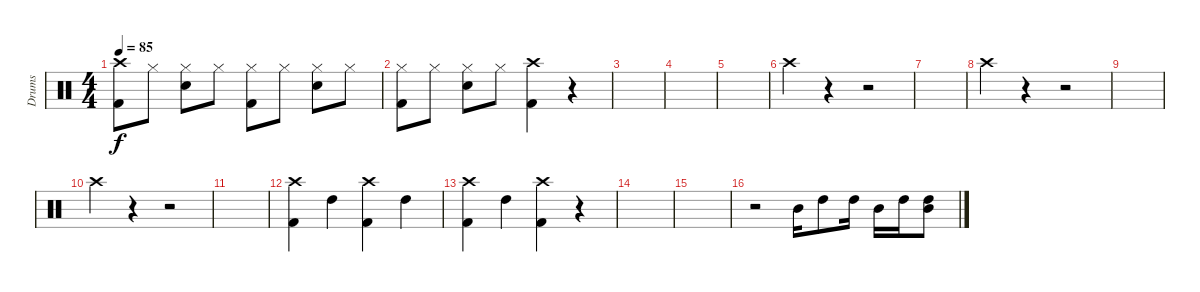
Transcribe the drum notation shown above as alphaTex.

\track ("Drums" "Drums") {instrument percussion}
\staff {score}
\articulation defaults
\ts (4 4)
\tempo 85
\clef neutral
\ks c
("Crash high (hit)" "Kick (hit) 2").8{dy f} "Hi-Hat (closed)".8 ("Hi-Hat (closed)" "Snare (hit) 2").8 "Hi-Hat (closed)".8 ("Hi-Hat (closed)" "Kick (hit) 2").8 "Hi-Hat (closed)".8 ("Hi-Hat (closed)" "Snare (hit) 2").8 "Hi-Hat (closed)".8 |
("Hi-Hat (closed)" "Kick (hit) 2").8 "Hi-Hat (closed)".8 ("Hi-Hat (closed)" "Snare (hit) 2").8 "Hi-Hat (closed)".8 ("Crash high (hit)" "Kick (hit) 2").4 r.4 |
|
|
|
"Crash high (hit)".4 r.4 r.2 |
|
"Crash high (hit)".4 r.4 r.2 |
|
"Crash high (hit)".4 r.4 r.2 |
|
("Crash high (hit)" "Kick (hit) 2").4 "High Tom (hit)".4 ("Crash high (hit)" "Kick (hit) 2").4 "High Tom (hit)".4 |
("Crash high (hit)" "Kick (hit) 2").4 "High Tom (hit)".4 ("Crash high (hit)" "Kick (hit) 2").4 r.4 |
|
|
r.2 "Mid Tom (hit)".16 "High Tom (hit)".8 "High Tom (hit)".16 "Mid Tom (hit)".16 "High Tom (hit)".16 ("High Tom (hit)" "Mid Tom (hit)").8
